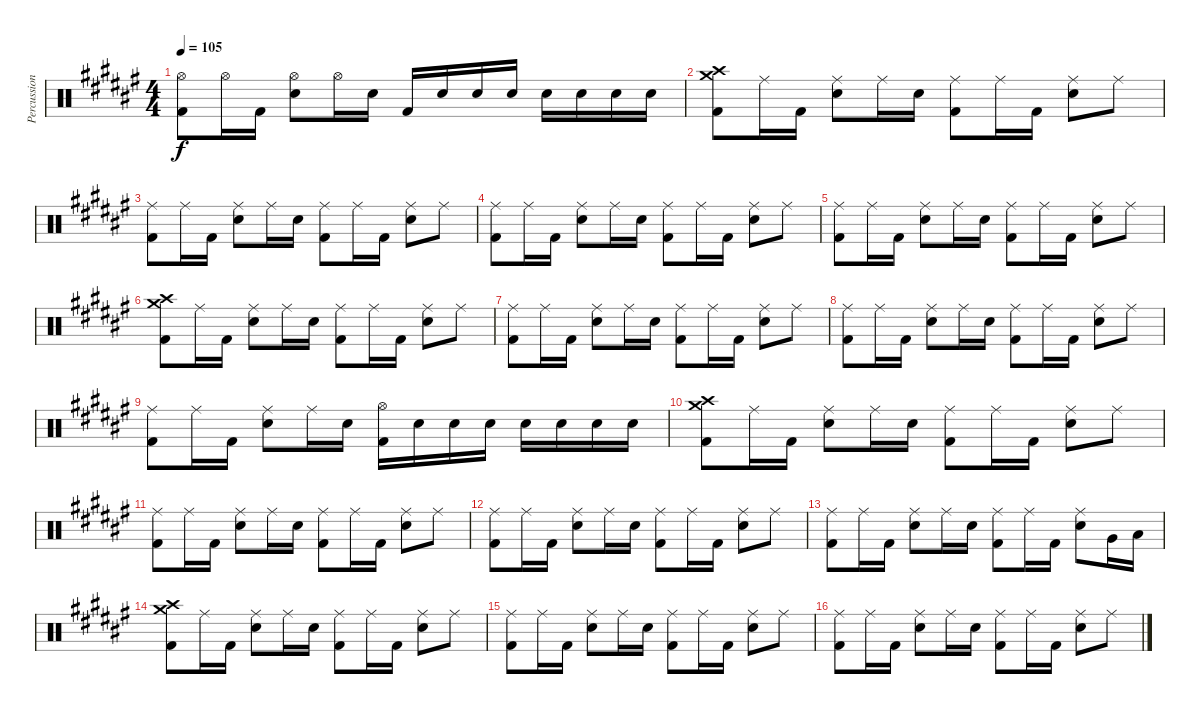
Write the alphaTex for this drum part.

\track ("Percussion" "Percussion") {instrument percussion}
\staff {score}
\articulation defaults
\ts (4 4)
\tempo 105
\clef neutral
\ks d#minor
("Kick (hit) 2" "Hi-Hat (open)").8{dy f} "Hi-Hat (open)".16 "Kick (hit) 2".16 ("Electric Snare (hit)" "Hi-Hat (open)").8 "Hi-Hat (open)".16 "Electric Snare (hit)".16 "Kick (hit) 2".16 "Electric Snare (hit)".16 "Electric Snare (hit)".16 "Electric Snare (hit)".16 "Electric Snare (hit)".16 "Electric Snare (hit)".16 "Electric Snare (hit)".16 "Electric Snare (hit)".16 |
("Kick (hit) 2" "Crash medium (hit)" "Crash high (hit)").8 "Ride (middle)".16 "Kick (hit) 2".16 ("Electric Snare (hit)" "Ride (middle)").8 "Ride (middle)".16 "Electric Snare (hit)".16 ("Kick (hit) 2" "Ride (middle)").8 "Ride (middle)".16 "Kick (hit) 2".16 ("Electric Snare (hit)" "Ride (middle)").8 "Ride (middle)".8 |
("Kick (hit) 2" "Ride (middle)").8 "Ride (middle)".16 "Kick (hit) 2".16 ("Electric Snare (hit)" "Ride (middle)").8 "Ride (middle)".16 "Electric Snare (hit)".16 ("Kick (hit) 2" "Ride (middle)").8 "Ride (middle)".16 "Kick (hit) 2".16 ("Electric Snare (hit)" "Ride (middle)").8 "Ride (middle)".8 |
("Kick (hit) 2" "Ride (middle)").8 "Ride (middle)".16 "Kick (hit) 2".16 ("Electric Snare (hit)" "Ride (middle)").8 "Ride (middle)".16 "Electric Snare (hit)".16 ("Kick (hit) 2" "Ride (middle)").8 "Ride (middle)".16 "Kick (hit) 2".16 ("Electric Snare (hit)" "Ride (middle)").8 "Ride (middle)".8 |
("Kick (hit) 2" "Ride (middle)").8 "Ride (middle)".16 "Kick (hit) 2".16 ("Electric Snare (hit)" "Ride (middle)").8 "Ride (middle)".16 "Electric Snare (hit)".16 ("Kick (hit) 2" "Ride (middle)").8 "Ride (middle)".16 "Kick (hit) 2".16 ("Electric Snare (hit)" "Ride (middle)").8 "Ride (middle)".8 |
("Kick (hit) 2" "Crash medium (hit)" "Crash high (hit)").8 "Ride (middle)".16 "Kick (hit) 2".16 ("Electric Snare (hit)" "Ride (middle)").8 "Ride (middle)".16 "Electric Snare (hit)".16 ("Kick (hit) 2" "Ride (middle)").8 "Ride (middle)".16 "Kick (hit) 2".16 ("Electric Snare (hit)" "Ride (middle)").8 "Ride (middle)".8 |
("Kick (hit) 2" "Ride (middle)").8 "Ride (middle)".16 "Kick (hit) 2".16 ("Electric Snare (hit)" "Ride (middle)").8 "Ride (middle)".16 "Electric Snare (hit)".16 ("Kick (hit) 2" "Ride (middle)").8 "Ride (middle)".16 "Kick (hit) 2".16 ("Electric Snare (hit)" "Ride (middle)").8 "Ride (middle)".8 |
("Kick (hit) 2" "Ride (middle)").8 "Ride (middle)".16 "Kick (hit) 2".16 ("Electric Snare (hit)" "Ride (middle)").8 "Ride (middle)".16 "Electric Snare (hit)".16 ("Kick (hit) 2" "Ride (middle)").8 "Ride (middle)".16 "Kick (hit) 2".16 ("Electric Snare (hit)" "Ride (middle)").8 "Ride (middle)".8 |
("Kick (hit) 2" "Ride (middle)").8 "Ride (middle)".16 "Kick (hit) 2".16 ("Electric Snare (hit)" "Ride (middle)").8 "Ride (middle)".16 "Electric Snare (hit)".16 ("Kick (hit) 2" "Hi-Hat (open)").16 "Electric Snare (hit)".16 "Electric Snare (hit)".16 "Electric Snare (hit)".16 "Electric Snare (hit)".16 "Electric Snare (hit)".16 "Electric Snare (hit)".16 "Electric Snare (hit)".16 |
("Kick (hit) 2" "Crash medium (hit)" "Crash high (hit)").8 "Ride (middle)".16 "Kick (hit) 2".16 ("Electric Snare (hit)" "Ride (middle)").8 "Ride (middle)".16 "Electric Snare (hit)".16 ("Kick (hit) 2" "Ride (middle)").8 "Ride (middle)".16 "Kick (hit) 2".16 ("Electric Snare (hit)" "Ride (middle)").8 "Ride (middle)".8 |
("Kick (hit) 2" "Ride (middle)").8 "Ride (middle)".16 "Kick (hit) 2".16 ("Electric Snare (hit)" "Ride (middle)").8 "Ride (middle)".16 "Electric Snare (hit)".16 ("Kick (hit) 2" "Ride (middle)").8 "Ride (middle)".16 "Kick (hit) 2".16 ("Electric Snare (hit)" "Ride (middle)").8 "Ride (middle)".8 |
("Kick (hit) 2" "Ride (middle)").8 "Ride (middle)".16 "Kick (hit) 2".16 ("Electric Snare (hit)" "Ride (middle)").8 "Ride (middle)".16 "Electric Snare (hit)".16 ("Kick (hit) 2" "Ride (middle)").8 "Ride (middle)".16 "Kick (hit) 2".16 ("Electric Snare (hit)" "Ride (middle)").8 "Ride (middle)".8 |
("Kick (hit) 2" "Ride (middle)").8 "Ride (middle)".16 "Kick (hit) 2".16 ("Electric Snare (hit)" "Ride (middle)").8 "Ride (middle)".16 "Electric Snare (hit)".16 ("Kick (hit) 2" "Ride (middle)").8 "Ride (middle)".16 "Kick (hit) 2".16 ("Electric Snare (hit)" "Ride (middle)").8 "Very Low Tom (hit)".16 "Low Floor Tom (hit)".16 |
("Kick (hit) 2" "Crash medium (hit)" "Crash high (hit)").8 "Ride (middle)".16 "Kick (hit) 2".16 ("Electric Snare (hit)" "Ride (middle)").8 "Ride (middle)".16 "Electric Snare (hit)".16 ("Kick (hit) 2" "Ride (middle)").8 "Ride (middle)".16 "Kick (hit) 2".16 ("Electric Snare (hit)" "Ride (middle)").8 "Ride (middle)".8 |
("Kick (hit) 2" "Ride (middle)").8 "Ride (middle)".16 "Kick (hit) 2".16 ("Electric Snare (hit)" "Ride (middle)").8 "Ride (middle)".16 "Electric Snare (hit)".16 ("Kick (hit) 2" "Ride (middle)").8 "Ride (middle)".16 "Kick (hit) 2".16 ("Electric Snare (hit)" "Ride (middle)").8 "Ride (middle)".8 |
("Kick (hit) 2" "Ride (middle)").8 "Ride (middle)".16 "Kick (hit) 2".16 ("Electric Snare (hit)" "Ride (middle)").8 "Ride (middle)".16 "Electric Snare (hit)".16 ("Kick (hit) 2" "Ride (middle)").8 "Ride (middle)".16 "Kick (hit) 2".16 ("Electric Snare (hit)" "Ride (middle)").8 "Ride (middle)".8
